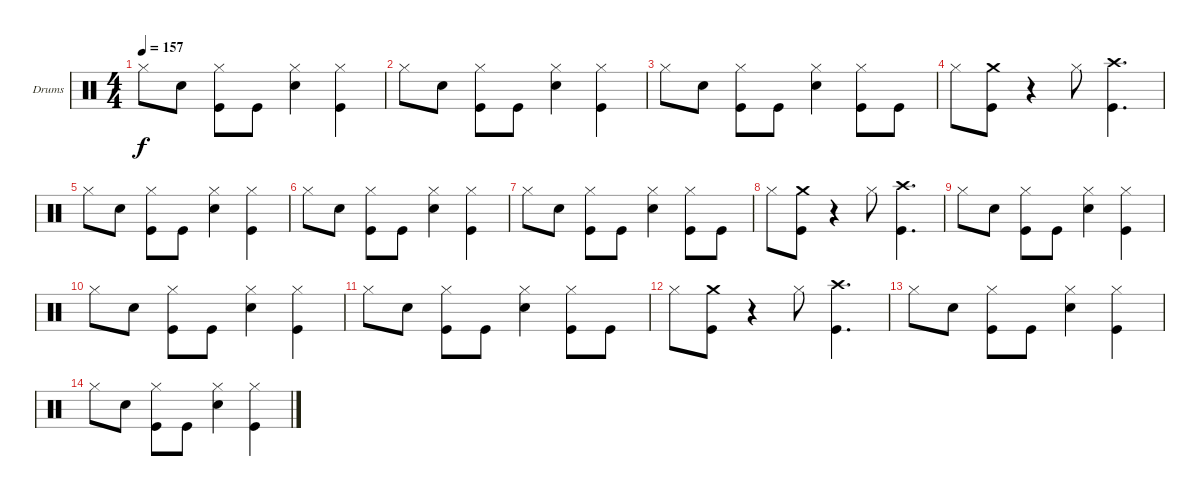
\defaultSystemsLayout 4
\bracketExtendMode groupsimilarinstruments
\firstSystemTrackNameOrientation horizontal
\otherSystemsTrackNameOrientation horizontal
\track ("Drumkit" "Drums") {instrument percussion}
\staff {score}
\articulation defaults
\ts (4 4)
\tempo 157
\clef neutral
\ks c "Hi-Hat (closed)".8{dy f} "Snare (hit) 2".8
("Hi-Hat (closed)" "Kick (hit)").8 "Kick (hit)".8 ("Hi-Hat (closed)" "Snare (hit) 2").4 ("Hi-Hat (closed)" "Kick (hit)").4 |
"Hi-Hat (closed)".8 "Snare (hit) 2".8 ("Hi-Hat (closed)" "Kick (hit)").8 "Kick (hit)".8 ("Hi-Hat (closed)" "Snare (hit) 2").4 ("Hi-Hat (closed)" "Kick (hit)").4 |
"Hi-Hat (closed)".8 "Snare (hit) 2".8 ("Kick (hit)" "Hi-Hat (closed)").8 "Kick (hit)".8 ("Snare (hit) 2" "Hi-Hat (closed)").4 ("Kick (hit)" "Hi-Hat (closed)").8 "Kick (hit)".8 |
"Hi-Hat (closed)".8 ("Crash medium (hit)" "Kick (hit)").8 r.4 "Hi-Hat (closed)".8 ("Crash high (hit)" "Kick (hit)").4{d} |
"Hi-Hat (closed)".8 "Snare (hit) 2".8 ("Hi-Hat (closed)" "Kick (hit)").8 "Kick (hit)".8 ("Hi-Hat (closed)" "Snare (hit) 2").4 ("Hi-Hat (closed)" "Kick (hit)").4 |
"Hi-Hat (closed)".8 "Snare (hit) 2".8 ("Hi-Hat (closed)" "Kick (hit)").8 "Kick (hit)".8 ("Hi-Hat (closed)" "Snare (hit) 2").4 ("Hi-Hat (closed)" "Kick (hit)").4 |
"Hi-Hat (closed)".8 "Snare (hit) 2".8 ("Kick (hit)" "Hi-Hat (closed)").8 "Kick (hit)".8 ("Snare (hit) 2" "Hi-Hat (closed)").4 ("Kick (hit)" "Hi-Hat (closed)").8 "Kick (hit)".8 |
"Hi-Hat (closed)".8 ("Crash medium (hit)" "Kick (hit)").8 r.4 "Hi-Hat (closed)".8 ("Crash high (hit)" "Kick (hit)").4{d} |
"Hi-Hat (closed)".8 "Snare (hit) 2".8 ("Hi-Hat (closed)" "Kick (hit)").8 "Kick (hit)".8 ("Hi-Hat (closed)" "Snare (hit) 2").4 ("Hi-Hat (closed)" "Kick (hit)").4 |
"Hi-Hat (closed)".8 "Snare (hit) 2".8 ("Hi-Hat (closed)" "Kick (hit)").8 "Kick (hit)".8 ("Hi-Hat (closed)" "Snare (hit) 2").4 ("Hi-Hat (closed)" "Kick (hit)").4 |
"Hi-Hat (closed)".8 "Snare (hit) 2".8 ("Kick (hit)" "Hi-Hat (closed)").8 "Kick (hit)".8 ("Snare (hit) 2" "Hi-Hat (closed)").4 ("Kick (hit)" "Hi-Hat (closed)").8 "Kick (hit)".8 |
"Hi-Hat (closed)".8 ("Crash medium (hit)" "Kick (hit)").8 r.4 "Hi-Hat (closed)".8 ("Crash high (hit)" "Kick (hit)").4{d} |
"Hi-Hat (closed)".8 "Snare (hit) 2".8 ("Hi-Hat (closed)" "Kick (hit)").8 "Kick (hit)".8 ("Hi-Hat (closed)" "Snare (hit) 2").4 ("Hi-Hat (closed)" "Kick (hit)").4 |
"Hi-Hat (closed)".8 "Snare (hit) 2".8 ("Hi-Hat (closed)" "Kick (hit)").8 "Kick (hit)".8 ("Hi-Hat (closed)" "Snare (hit) 2").4 ("Hi-Hat (closed)" "Kick (hit)").4
